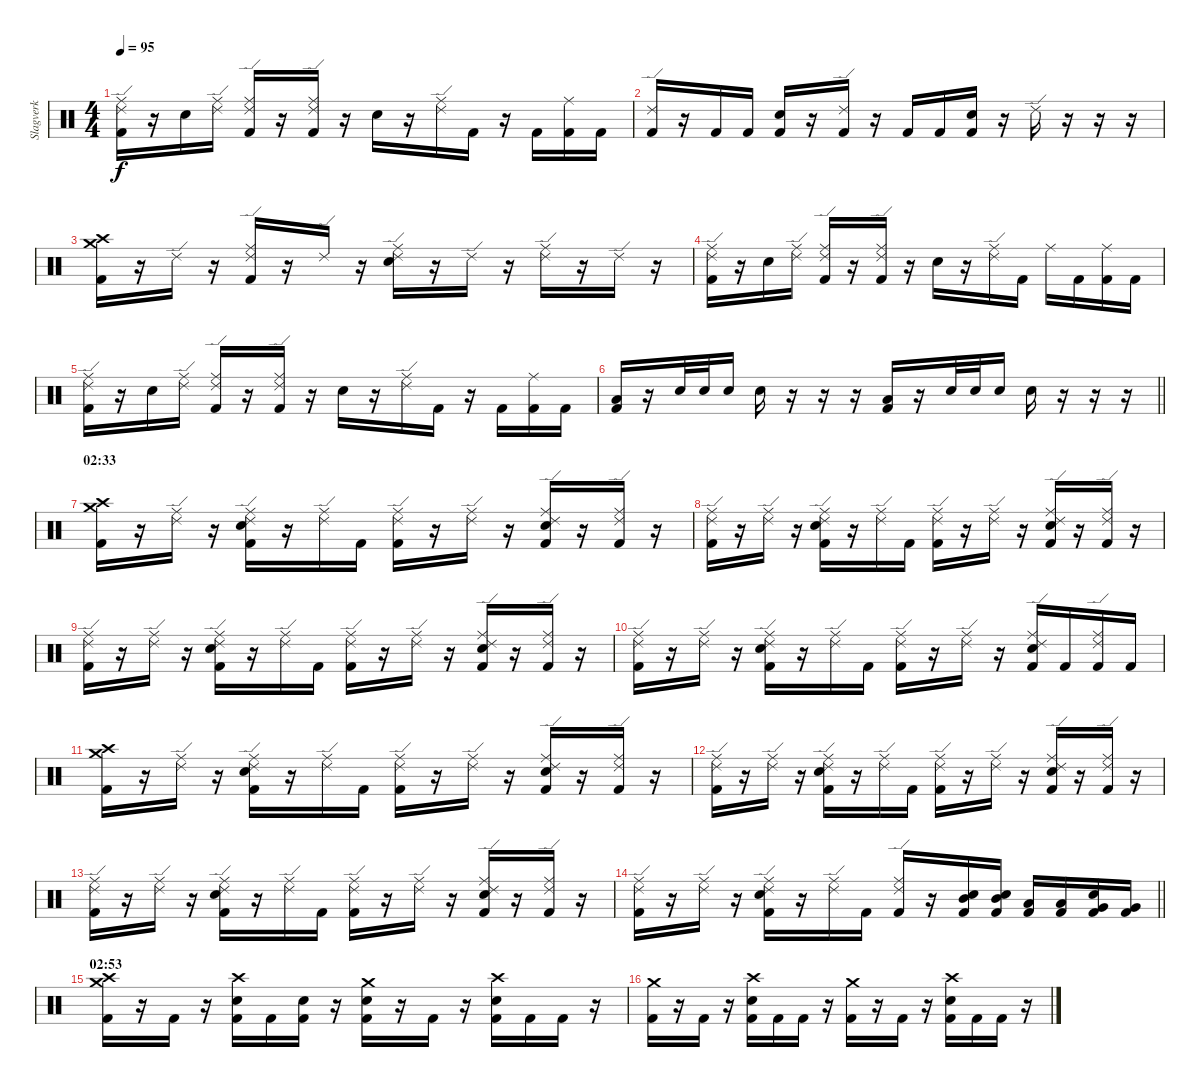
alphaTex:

\track ("Slagverk" "Slagverk") {instrument percussion}
\staff {score}
\articulation defaults
\ts (4 4)
\tempo 95
\clef neutral
\ks c
("Ride (edge) 2" "Ride (middle)" "Kick (hit) 2").16{dy f} r.16 "Electric Snare (hit)".16 ("Ride (edge) 2" "Ride (middle)").16 ("Ride (edge) 2" "Ride (middle)" "Kick (hit) 2").16 r.16 ("Ride (edge) 2" "Ride (middle)" "Kick (hit) 2").16 r.16 "Electric Snare (hit)".16 r.16 ("Ride (edge) 2" "Ride (middle)").16 "Kick (hit) 2".16 r.16 "Kick (hit) 2".16 ("Ride (middle)" "Kick (hit) 2").16 "Kick (hit) 2".16 |
("Ride (edge) 2" "Kick (hit) 2").16 r.16 "Kick (hit) 2".16 "Kick (hit) 2".16 ("Electric Snare (hit)" "Kick (hit) 2").16 r.16 ("Ride (edge) 2" "Kick (hit) 2").16 r.16 "Kick (hit) 2".16 "Kick (hit) 2".16 ("Electric Snare (hit)" "Kick (hit) 2").16 r.16 "Ride (edge) 2".16 r.16 r.16 r.16 |
("Crash medium (hit)" "Crash high (hit)" "Kick (hit) 2").16 r.16 "Ride (edge) 2".16 r.16 ("Ride (middle)" "Ride (edge) 2" "Kick (hit) 2").16 r.16 "Ride (edge) 2".16 r.16 ("Ride (middle)" "Ride (edge) 2" "Electric Snare (hit)").16 r.16 "Ride (edge) 2".16 r.16 ("Ride (middle)" "Ride (edge) 2").16 r.16 "Ride (edge) 2".16 r.16 |
("Ride (edge) 2" "Ride (middle)" "Kick (hit) 2").16 r.16 "Electric Snare (hit)".16 ("Ride (edge) 2" "Ride (middle)").16 ("Ride (edge) 2" "Ride (middle)" "Kick (hit) 2").16 r.16 ("Ride (edge) 2" "Ride (middle)" "Kick (hit) 2").16 r.16 "Electric Snare (hit)".16 r.16 ("Ride (edge) 2" "Ride (middle)").16 "Kick (hit) 2".16 "Ride (middle)".16 "Kick (hit) 2".16 ("Ride (middle)" "Kick (hit) 2").16 "Kick (hit) 2".16 |
("Ride (edge) 2" "Ride (middle)" "Kick (hit) 2").16 r.16 "Electric Snare (hit)".16 ("Ride (edge) 2" "Ride (middle)").16 ("Ride (edge) 2" "Ride (middle)" "Kick (hit) 2").16 r.16 ("Ride (edge) 2" "Ride (middle)" "Kick (hit) 2").16 r.16 "Electric Snare (hit)".16 r.16 ("Ride (edge) 2" "Ride (middle)").16 "Kick (hit) 2".16 r.16 "Kick (hit) 2".16 ("Ride (middle)" "Kick (hit) 2").16 "Kick (hit) 2".16 |
\barLineRight lightlight
("Kick (hit) 2" "Low Floor Tom (hit)").16 r.16 "Electric Snare (hit)".32 "Electric Snare (hit)".32 "Electric Snare (hit)".16 "Electric Snare (hit)".16 r.16 r.16 r.16 ("Kick (hit) 2" "Low Floor Tom (hit)").16 r.16 "Electric Snare (hit)".32 "Electric Snare (hit)".32 "Electric Snare (hit)".16 "Electric Snare (hit)".16 r.16 r.16 r.16 |
\section ("" "02:33")
("Crash medium (hit)" "Crash high (hit)" "Kick (hit) 2").16 r.16 ("Ride (middle)" "Ride (edge) 2").16 r.16 ("Ride (middle)" "Ride (edge) 2" "Electric Snare (hit)" "Kick (hit) 2").16 r.16 ("Ride (middle)" "Ride (edge) 2").16 "Kick (hit) 2".16 ("Ride (middle)" "Ride (edge) 2" "Kick (hit) 2").16 r.16 ("Ride (middle)" "Ride (edge) 2").16 r.16 ("Ride (middle)" "Ride (edge) 2" "Electric Snare (hit)" "Kick (hit) 2").16 r.16 ("Ride (middle)" "Ride (edge) 2" "Kick (hit) 2").16 r.16 |
("Ride (middle)" "Ride (edge) 2" "Kick (hit) 2").16 r.16 ("Ride (middle)" "Ride (edge) 2").16 r.16 ("Ride (middle)" "Ride (edge) 2" "Electric Snare (hit)" "Kick (hit) 2").16 r.16 ("Ride (middle)" "Ride (edge) 2").16 "Kick (hit) 2".16 ("Ride (middle)" "Ride (edge) 2" "Kick (hit) 2").16 r.16 ("Ride (middle)" "Ride (edge) 2").16 r.16 ("Ride (middle)" "Ride (edge) 2" "Electric Snare (hit)" "Kick (hit) 2").16 r.16 ("Ride (middle)" "Ride (edge) 2" "Kick (hit) 2").16 r.16 |
("Ride (middle)" "Ride (edge) 2" "Kick (hit) 2").16 r.16 ("Ride (middle)" "Ride (edge) 2").16 r.16 ("Ride (middle)" "Ride (edge) 2" "Electric Snare (hit)" "Kick (hit) 2").16 r.16 ("Ride (middle)" "Ride (edge) 2").16 "Kick (hit) 2".16 ("Ride (middle)" "Ride (edge) 2" "Kick (hit) 2").16 r.16 ("Ride (middle)" "Ride (edge) 2").16 r.16 ("Ride (middle)" "Ride (edge) 2" "Electric Snare (hit)" "Kick (hit) 2").16 r.16 ("Ride (middle)" "Ride (edge) 2" "Kick (hit) 2").16 r.16 |
("Ride (middle)" "Ride (edge) 2" "Kick (hit) 2").16 r.16 ("Ride (middle)" "Ride (edge) 2").16 r.16 ("Ride (middle)" "Ride (edge) 2" "Electric Snare (hit)" "Kick (hit) 2").16 r.16 ("Ride (middle)" "Ride (edge) 2").16 "Kick (hit) 2".16 ("Ride (middle)" "Ride (edge) 2" "Kick (hit) 2").16 r.16 ("Ride (middle)" "Ride (edge) 2").16 r.16 ("Ride (middle)" "Ride (edge) 2" "Electric Snare (hit)" "Kick (hit) 2").16 "Kick (hit) 2".16 ("Ride (middle)" "Ride (edge) 2" "Kick (hit) 2").16 "Kick (hit) 2".16 |
("Crash medium (hit)" "Crash high (hit)" "Kick (hit) 2").16 r.16 ("Ride (middle)" "Ride (edge) 2").16 r.16 ("Ride (middle)" "Ride (edge) 2" "Electric Snare (hit)" "Kick (hit) 2").16 r.16 ("Ride (middle)" "Ride (edge) 2").16 "Kick (hit) 2".16 ("Ride (middle)" "Ride (edge) 2" "Kick (hit) 2").16 r.16 ("Ride (middle)" "Ride (edge) 2").16 r.16 ("Ride (middle)" "Ride (edge) 2" "Electric Snare (hit)" "Kick (hit) 2").16 r.16 ("Ride (middle)" "Ride (edge) 2" "Kick (hit) 2").16 r.16 |
("Ride (middle)" "Ride (edge) 2" "Kick (hit) 2").16 r.16 ("Ride (middle)" "Ride (edge) 2").16 r.16 ("Ride (middle)" "Ride (edge) 2" "Electric Snare (hit)" "Kick (hit) 2").16 r.16 ("Ride (middle)" "Ride (edge) 2").16 "Kick (hit) 2".16 ("Ride (middle)" "Ride (edge) 2" "Kick (hit) 2").16 r.16 ("Ride (middle)" "Ride (edge) 2").16 r.16 ("Ride (middle)" "Ride (edge) 2" "Electric Snare (hit)" "Kick (hit) 2").16 r.16 ("Ride (middle)" "Ride (edge) 2" "Kick (hit) 2").16 r.16 |
("Ride (middle)" "Ride (edge) 2" "Kick (hit) 2").16 r.16 ("Ride (middle)" "Ride (edge) 2").16 r.16 ("Ride (middle)" "Ride (edge) 2" "Electric Snare (hit)" "Kick (hit) 2").16 r.16 ("Ride (middle)" "Ride (edge) 2").16 "Kick (hit) 2".16 ("Ride (middle)" "Ride (edge) 2" "Kick (hit) 2").16 r.16 ("Ride (middle)" "Ride (edge) 2").16 r.16 ("Ride (middle)" "Ride (edge) 2" "Electric Snare (hit)" "Kick (hit) 2").16 r.16 ("Ride (middle)" "Ride (edge) 2" "Kick (hit) 2").16 r.16 |
\barLineRight lightlight
("Ride (middle)" "Ride (edge) 2" "Kick (hit) 2").16 r.16 ("Ride (middle)" "Ride (edge) 2").16 r.16 ("Ride (middle)" "Ride (edge) 2" "Electric Snare (hit)" "Kick (hit) 2").16 r.16 ("Ride (middle)" "Ride (edge) 2").16 "Kick (hit) 2".16 ("Ride (middle)" "Ride (edge) 2" "Kick (hit) 2").16 r.16 ("Mid Tom (hit)" "Electric Snare (hit)" "Kick (hit) 2").16 ("Mid Tom (hit)" "Electric Snare (hit)" "Kick (hit) 2").16 ("Low Tom (hit)" "Kick (hit) 2").16 ("Low Tom (hit)" "Kick (hit) 2").16 ("Very Low Tom (hit)" "Electric Snare (hit)" "Kick (hit) 2").16 ("Very Low Tom (hit)" "Kick (hit) 2").16 |
\section ("" "02:53")
("Crash medium (hit)" "Crash high (hit)" "Kick (hit) 2").16 r.16 "Kick (hit) 2".16 r.16 ("Crash high (hit)" "Electric Snare (hit)" "Kick (hit) 2").16 "Kick (hit) 2".16 ("Electric Snare (hit)" "Kick (hit) 2").16 r.16 ("Crash medium (hit)" "Electric Snare (hit)" "Kick (hit) 2").16 r.16 "Kick (hit) 2".16 r.16 ("Crash high (hit)" "Electric Snare (hit)" "Kick (hit) 2").16 "Kick (hit) 2".16 "Kick (hit) 2".16 r.16 |
("Crash medium (hit)" "Kick (hit) 2").16 r.16 "Kick (hit) 2".16 r.16 ("Crash high (hit)" "Electric Snare (hit)" "Kick (hit) 2").16 "Kick (hit) 2".16 "Kick (hit) 2".16 r.16 ("Crash medium (hit)" "Kick (hit) 2").16 r.16 "Kick (hit) 2".16 r.16 ("Crash high (hit)" "Electric Snare (hit)" "Kick (hit) 2").16 "Kick (hit) 2".16 "Kick (hit) 2".16 r.16
